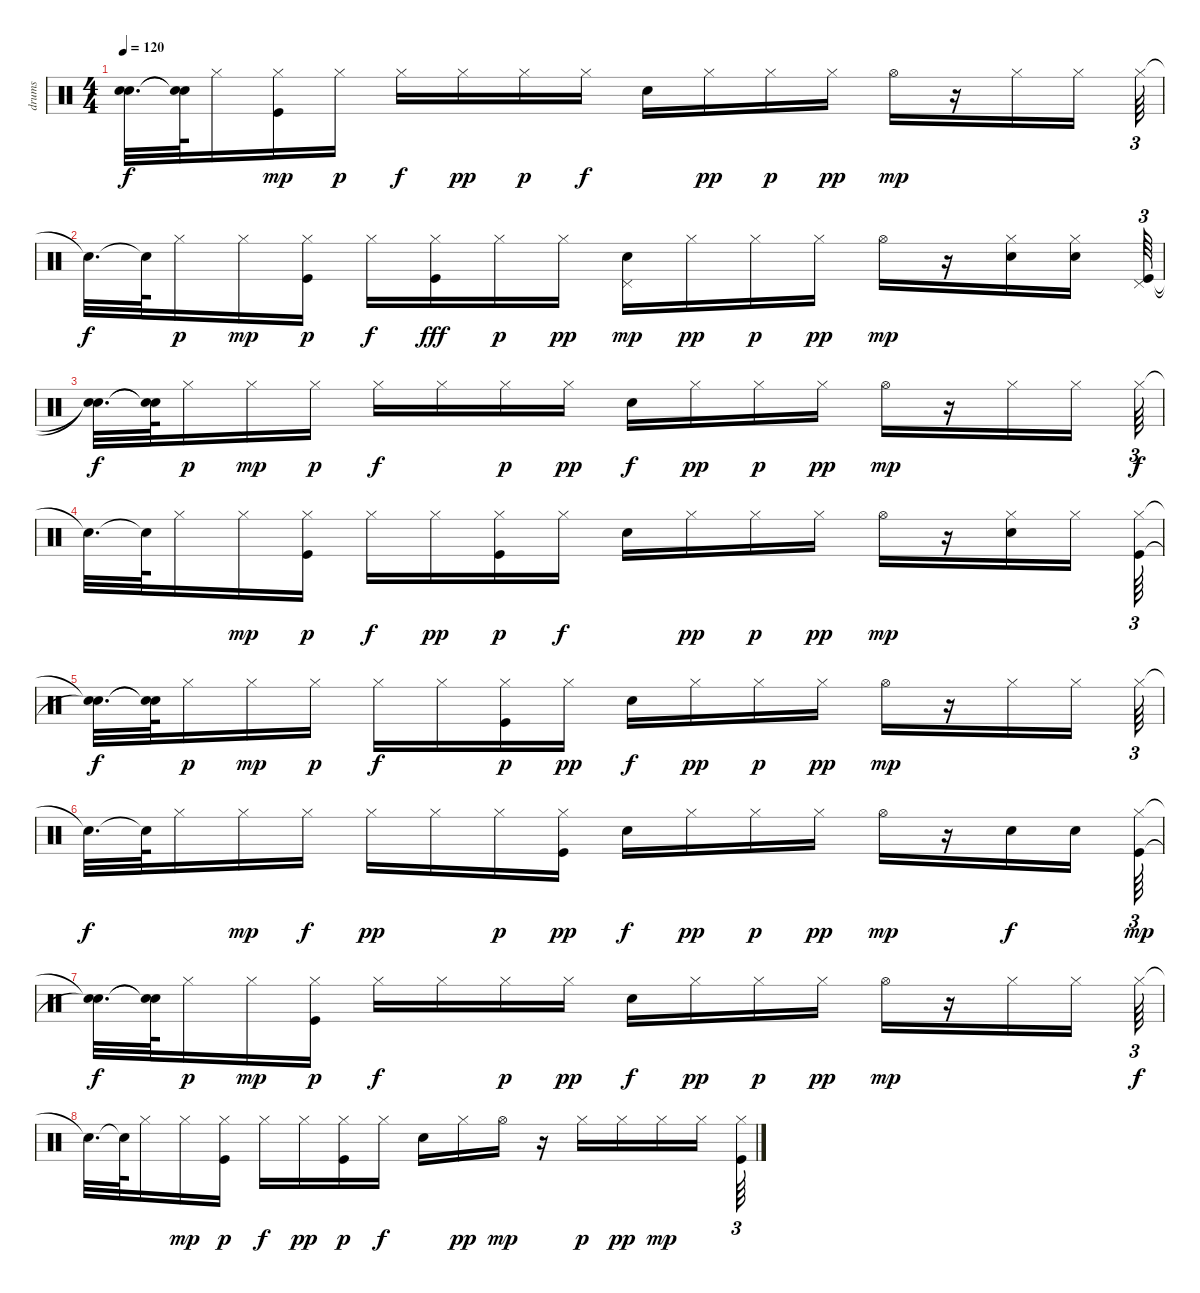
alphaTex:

\track ("drums" "drums") {instrument percussion}
\staff {score}
\articulation defaults
\ts (4 4)
\tempo 120
\clef neutral
\ks c
("Snare (hit)"{t} "Snare (hit)"{t}).32{d dy f} ("Snare (hit)"{t} "Snare (hit)"{t}).64 "Hi-Hat (closed)".16 ("Kick (hit)" "Hi-Hat (closed)").16{dy mp} "Hi-Hat (closed)".16{dy p} "Hi-Hat (closed)".16{dy f} "Hi-Hat (closed)".16{dy pp} "Hi-Hat (closed)".16{dy p} "Hi-Hat (closed)".16{dy f} "Snare (hit) 2".16 "Hi-Hat (closed)".16{dy pp} "Hi-Hat (closed)".16{dy p} "Hi-Hat (closed)".16{dy pp} "Hi-Hat (open)".16{dy mp} r.16 "Hi-Hat (closed)".16 "Hi-Hat (closed)".16 "Hi-Hat (closed)".64{tu (3 2)} |
"Snare (hit)"{t}.32{d dy f} "Snare (hit)"{t}.64 "Hi-Hat (closed)".16{dy p} "Hi-Hat (closed)".16{dy mp} ("Kick (hit)" "Hi-Hat (closed)").16{dy p} "Hi-Hat (closed)".16{dy f} ("Kick (hit)" "Hi-Hat (closed)").16{dy fff} "Hi-Hat (closed)".16{dy p} "Hi-Hat (closed)".16{dy pp} ("Snare (hit) 2" "Pedal Hi-Hat (hit)").16{dy mp} "Hi-Hat (closed)".16{dy pp} "Hi-Hat (closed)".16{dy p} "Hi-Hat (closed)".16{dy pp} "Hi-Hat (open)".16{dy mp} r.16 ("Snare (hit) 2" "Hi-Hat (closed)").16 ("Snare (hit) 2" "Hi-Hat (closed)").16 ("Kick (hit)" "Pedal Hi-Hat (hit)").64{tu (3 2)} |
("Snare (hit)"{t} "Snare (hit)"{t}).32{d dy f} ("Snare (hit)"{t} "Snare (hit)"{t}).64 "Hi-Hat (closed)".16{dy p} "Hi-Hat (closed)".16{dy mp} "Hi-Hat (closed)".16{dy p} "Hi-Hat (closed)".16{dy f} "Hi-Hat (closed)".16 "Hi-Hat (closed)".16{dy p} "Hi-Hat (closed)".16{dy pp} "Snare (hit) 2".16{dy f} "Hi-Hat (closed)".16{dy pp} "Hi-Hat (closed)".16{dy p} "Hi-Hat (closed)".16{dy pp} "Hi-Hat (open)".16{dy mp} r.16 "Hi-Hat (closed)".16 "Hi-Hat (closed)".16 "Hi-Hat (closed)".64{tu (3 2) dy f} |
"Snare (hit)"{t}.32{d} "Snare (hit)"{t}.64 "Hi-Hat (closed)".16 "Hi-Hat (closed)".16{dy mp} ("Kick (hit)" "Hi-Hat (closed)").16{dy p} "Hi-Hat (closed)".16{dy f} "Hi-Hat (closed)".16{dy pp} ("Kick (hit)" "Hi-Hat (closed)").16{dy p} "Hi-Hat (closed)".16{dy f} "Snare (hit) 2".16 "Hi-Hat (closed)".16{dy pp} "Hi-Hat (closed)".16{dy p} "Hi-Hat (closed)".16{dy pp} "Hi-Hat (open)".16{dy mp} r.16 ("Snare (hit) 2" "Hi-Hat (closed)").16 "Hi-Hat (closed)".16 ("Kick (hit)" "Hi-Hat (closed)").64{tu (3 2)} |
("Snare (hit)"{t} "Snare (hit)"{t}).32{d dy f} ("Snare (hit)"{t} "Snare (hit)"{t}).64 "Hi-Hat (closed)".16{dy p} "Hi-Hat (closed)".16{dy mp} "Hi-Hat (closed)".16{dy p} "Hi-Hat (closed)".16{dy f} "Hi-Hat (closed)".16 ("Kick (hit)" "Hi-Hat (closed)").16{dy p} "Hi-Hat (closed)".16{dy pp} "Snare (hit) 2".16{dy f} "Hi-Hat (closed)".16{dy pp} "Hi-Hat (closed)".16{dy p} "Hi-Hat (closed)".16{dy pp} "Hi-Hat (open)".16{dy mp} r.16 "Hi-Hat (closed)".16 "Hi-Hat (closed)".16 "Hi-Hat (closed)".64{tu (3 2)} |
"Snare (hit)"{t}.32{d dy f} "Snare (hit)"{t}.64 "Hi-Hat (closed)".16 "Hi-Hat (closed)".16{dy mp} "Hi-Hat (closed)".16{dy f} "Hi-Hat (closed)".16{dy pp} "Hi-Hat (closed)".16 "Hi-Hat (closed)".16{dy p} ("Kick (hit)" "Hi-Hat (closed)").16{dy pp} "Snare (hit) 2".16{dy f} "Hi-Hat (closed)".16{dy pp} "Hi-Hat (closed)".16{dy p} "Hi-Hat (closed)".16{dy pp} "Hi-Hat (open)".16{dy mp} r.16 "Snare (hit) 2".16{dy f} "Snare (hit) 2".16 ("Kick (hit)" "Hi-Hat (closed)").64{tu (3 2) dy mp} |
("Snare (hit)"{t} "Snare (hit)"{t}).32{d dy f} ("Snare (hit)"{t} "Snare (hit)"{t}).64 "Hi-Hat (closed)".16{dy p} "Hi-Hat (closed)".16{dy mp} ("Kick (hit)" "Hi-Hat (closed)").16{dy p} "Hi-Hat (closed)".16{dy f} "Hi-Hat (closed)".16 "Hi-Hat (closed)".16{dy p} "Hi-Hat (closed)".16{dy pp} "Snare (hit) 2".16{dy f} "Hi-Hat (closed)".16{dy pp} "Hi-Hat (closed)".16{dy p} "Hi-Hat (closed)".16{dy pp} "Hi-Hat (open)".16{dy mp} r.16 "Hi-Hat (closed)".16 "Hi-Hat (closed)".16 "Hi-Hat (closed)".64{tu (3 2) dy f} |
"Snare (hit)"{t}.32{d} "Snare (hit)"{t}.64 "Hi-Hat (closed)".16 "Hi-Hat (closed)".16{dy mp} ("Kick (hit)" "Hi-Hat (closed)").16{dy p} "Hi-Hat (closed)".16{dy f} "Hi-Hat (closed)".16{dy pp} ("Kick (hit)" "Hi-Hat (closed)").16{dy p} "Hi-Hat (closed)".16{dy f} "Snare (hit) 2".16 "Hi-Hat (closed)".16{dy pp} "Hi-Hat (open)".16{dy mp} r.16 "Hi-Hat (closed)".16{dy p} "Hi-Hat (closed)".16{dy pp} "Hi-Hat (closed)".16{dy mp} "Hi-Hat (closed)".16 ("Kick (hit)" "Hi-Hat (closed)").64{tu (3 2)}
